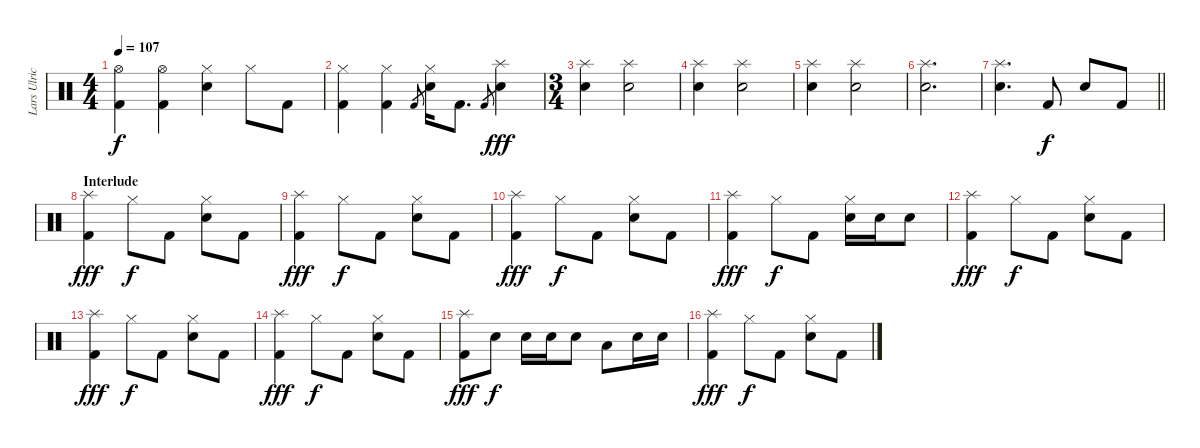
\track ("Lars Ulrich" "Lars Ulric") {instrument percussion}
\staff {score}
\articulation defaults
\ts (4 4)
\tempo 107
\clef neutral
\ks c
("Hi-Hat (open)" "Kick (hit) 2").4{dy f} ("Hi-Hat (open)" "Kick (hit) 2").4 ("Hi-Hat (closed)" "Electric Snare (hit)").4 "Hi-Hat (closed)".8 "Kick (hit) 2".8 |
("Hi-Hat (closed)" "Kick (hit) 2").4 ("Hi-Hat (closed)" "Kick (hit) 2").4 "Kick (hit) 2".8{gr} ("Hi-Hat (closed)" "Electric Snare (hit)").16 "Kick (hit) 2".8{d} "Kick (hit) 2".8{gr} ("Splash (hit)" "Electric Snare (hit)").4{dy fff} |
\ts (3 4)
("Splash (hit)" "Electric Snare (hit)").4 ("Splash (hit)" "Electric Snare (hit)").2 |
("Splash (hit)" "Electric Snare (hit)").4 ("Splash (hit)" "Electric Snare (hit)").2 |
("Splash (hit)" "Electric Snare (hit)").4 ("Splash (hit)" "Electric Snare (hit)").2 |
("Splash (hit)" "Electric Snare (hit)").2{d} |
\barLineRight lightlight
("Splash (hit)" "Electric Snare (hit)").4{d} "Kick (hit) 2".8{dy f} "Electric Snare (hit)".8 "Kick (hit) 2".8 |
\section ("" "Interlude")
("Splash (hit)" "Kick (hit) 2").4{dy fff} "Hi-Hat (closed)".8{dy f} "Kick (hit) 2".8 ("Hi-Hat (closed)" "Electric Snare (hit)").8 "Kick (hit) 2".8 |
("Splash (hit)" "Kick (hit) 2").4{dy fff} "Hi-Hat (closed)".8{dy f} "Kick (hit) 2".8 ("Hi-Hat (closed)" "Electric Snare (hit)").8 "Kick (hit) 2".8 |
("Splash (hit)" "Kick (hit) 2").4{dy fff} "Hi-Hat (closed)".8{dy f} "Kick (hit) 2".8 ("Hi-Hat (closed)" "Electric Snare (hit)").8 "Kick (hit) 2".8 |
("Splash (hit)" "Kick (hit) 2").4{dy fff} "Hi-Hat (closed)".8{dy f} "Kick (hit) 2".8 ("Hi-Hat (closed)" "Electric Snare (hit)").16 "Electric Snare (hit)".16 "Electric Snare (hit)".8 |
("Splash (hit)" "Kick (hit) 2").4{dy fff} "Hi-Hat (closed)".8{dy f} "Kick (hit) 2".8 ("Hi-Hat (closed)" "Electric Snare (hit)").8 "Kick (hit) 2".8 |
("Splash (hit)" "Kick (hit) 2").4{dy fff} "Hi-Hat (closed)".8{dy f} "Kick (hit) 2".8 ("Hi-Hat (closed)" "Electric Snare (hit)").8 "Kick (hit) 2".8 |
("Splash (hit)" "Kick (hit) 2").4{dy fff} "Hi-Hat (closed)".8{dy f} "Kick (hit) 2".8 ("Hi-Hat (closed)" "Electric Snare (hit)").8 "Kick (hit) 2".8 |
("Splash (hit)" "Kick (hit) 2").8{dy fff} "Electric Snare (hit)".8{dy f} "Electric Snare (hit)".16 "Electric Snare (hit)".16 "Electric Snare (hit)".8 "Low Tom (hit)".8 "Electric Snare (hit)".16 "Electric Snare (hit)".16 |
("Splash (hit)" "Kick (hit) 2").4{dy fff} "Hi-Hat (closed)".8{dy f} "Kick (hit) 2".8 ("Hi-Hat (closed)" "Electric Snare (hit)").8 "Kick (hit) 2".8
